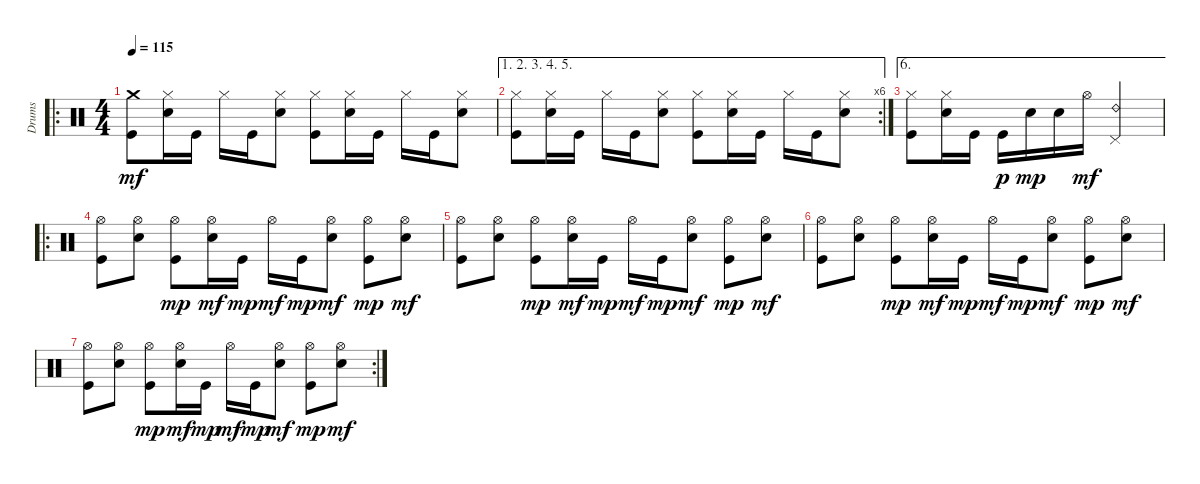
\bracketExtendMode groupsimilarinstruments
\otherSystemsTrackNameOrientation horizontal
\track ("Drumkit" "Drums") {instrument percussion}
\staff {score}
\articulation defaults
\ro
\ts (4 4)
\tempo 115
\clef neutral
\ks c
("Crash medium (hit)" "Kick (hit)").8{dy mf} ("Hi-Hat (closed)" "Snare (hit) 2").16 "Kick (hit)".16 "Hi-Hat (closed)".16 "Kick (hit)".16 ("Hi-Hat (closed)" "Snare (hit) 2").8 ("Hi-Hat (closed)" "Kick (hit)").8 ("Hi-Hat (closed)" "Snare (hit) 2").16 "Kick (hit)".16 "Hi-Hat (closed)".16 "Kick (hit)".16 ("Hi-Hat (closed)" "Snare (hit) 2").8 |
\ae (1 2 3 4 5)
\rc 6
("Hi-Hat (closed)" "Kick (hit)").8 ("Hi-Hat (closed)" "Snare (hit) 2").16 "Kick (hit)".16 "Hi-Hat (closed)".16 "Kick (hit)".16 ("Hi-Hat (closed)" "Snare (hit) 2").8 ("Hi-Hat (closed)" "Kick (hit)").8 ("Hi-Hat (closed)" "Snare (hit) 2").16 "Kick (hit)".16 "Hi-Hat (closed)".16 "Kick (hit)".16 ("Hi-Hat (closed)" "Snare (hit) 2").8 |
\ae 6
("Hi-Hat (closed)" "Kick (hit)").8 ("Hi-Hat (closed)" "Snare (hit) 2").16 "Kick (hit)".16 "Kick (hit)".16{dy p} "Snare (hit) 2".16{dy mp} "Snare (hit) 2".16 "Hi-Hat (open)".16{dy mf} ("Ride (bell) 2" "Pedal Hi-Hat (hit)").2 |
\ro
("Hi-Hat (open)" "Kick (hit)").8 ("Hi-Hat (open)" "Snare (hit) 2").8 ("Kick (hit)" "Hi-Hat (open)").8{dy mp} ("Hi-Hat (open)" "Snare (hit) 2").16{dy mf} "Kick (hit)".16{dy mp} "Hi-Hat (open)".16{dy mf} "Kick (hit)".16{dy mp} ("Hi-Hat (open)" "Snare (hit) 2").8{dy mf} ("Hi-Hat (open)" "Kick (hit)").8{dy mp} ("Hi-Hat (open)" "Snare (hit) 2").8{dy mf} |
("Hi-Hat (open)" "Kick (hit)").8 ("Hi-Hat (open)" "Snare (hit) 2").8 ("Kick (hit)" "Hi-Hat (open)").8{dy mp} ("Hi-Hat (open)" "Snare (hit) 2").16{dy mf} "Kick (hit)".16{dy mp} "Hi-Hat (open)".16{dy mf} "Kick (hit)".16{dy mp} ("Hi-Hat (open)" "Snare (hit) 2").8{dy mf} ("Hi-Hat (open)" "Kick (hit)").8{dy mp} ("Hi-Hat (open)" "Snare (hit) 2").8{dy mf} |
("Hi-Hat (open)" "Kick (hit)").8 ("Hi-Hat (open)" "Snare (hit) 2").8 ("Kick (hit)" "Hi-Hat (open)").8{dy mp} ("Hi-Hat (open)" "Snare (hit) 2").16{dy mf} "Kick (hit)".16{dy mp} "Hi-Hat (open)".16{dy mf} "Kick (hit)".16{dy mp} ("Hi-Hat (open)" "Snare (hit) 2").8{dy mf} ("Hi-Hat (open)" "Kick (hit)").8{dy mp} ("Hi-Hat (open)" "Snare (hit) 2").8{dy mf} |
\rc 2
("Hi-Hat (open)" "Kick (hit)").8 ("Hi-Hat (open)" "Snare (hit) 2").8 ("Kick (hit)" "Hi-Hat (open)").8{dy mp} ("Hi-Hat (open)" "Snare (hit) 2").16{dy mf} "Kick (hit)".16{dy mp} "Hi-Hat (open)".16{dy mf} "Kick (hit)".16{dy mp} ("Hi-Hat (open)" "Snare (hit) 2").8{dy mf} ("Hi-Hat (open)" "Kick (hit)").8{dy mp} ("Hi-Hat (open)" "Snare (hit) 2").8{dy mf}
